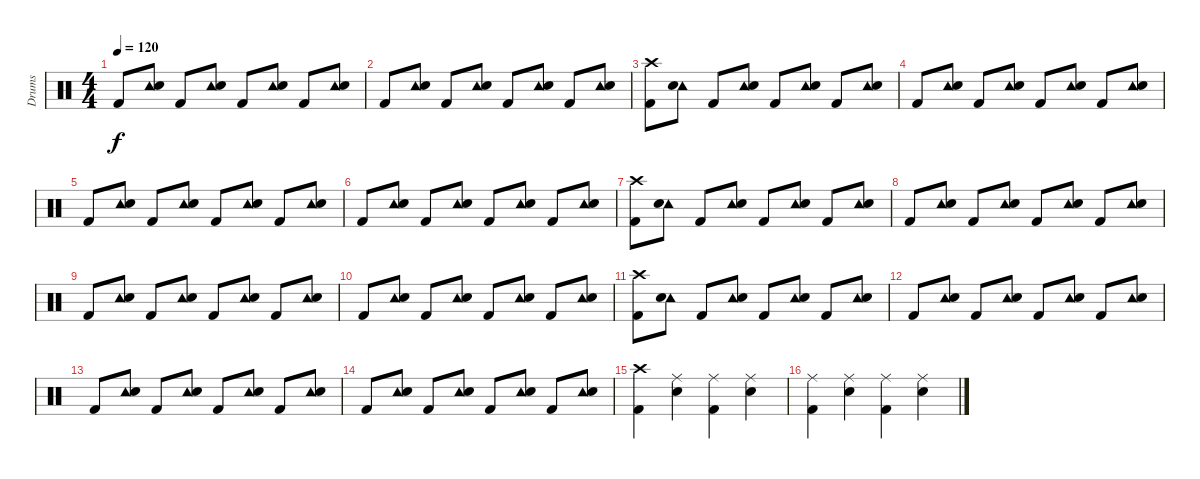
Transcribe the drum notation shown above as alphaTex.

\track ("Drums" "Drums") {instrument percussion}
\staff {score}
\articulation defaults
\ts (4 4)
\tempo 120
\clef neutral
\ks c "Kick (hit) 2".8{dy f}
("Tambourine (hit)" "Electric Snare (hit)").8 "Kick (hit) 2".8 ("Tambourine (hit)" "Electric Snare (hit)").8 "Kick (hit) 2".8 ("Tambourine (hit)" "Electric Snare (hit)").8 "Kick (hit) 2".8 ("Tambourine (hit)" "Electric Snare (hit)").8 |
"Kick (hit) 2".8 ("Tambourine (hit)" "Electric Snare (hit)").8 "Kick (hit) 2".8 ("Tambourine (hit)" "Electric Snare (hit)").8 "Kick (hit) 2".8 ("Tambourine (hit)" "Electric Snare (hit)").8 "Kick (hit) 2".8 ("Tambourine (hit)" "Electric Snare (hit)").8 |
("Crash high (hit)" "Kick (hit) 2").8 ("Tambourine (hit)" "Electric Snare (hit)").8 "Kick (hit) 2".8 ("Tambourine (hit)" "Electric Snare (hit)").8 "Kick (hit) 2".8 ("Tambourine (hit)" "Electric Snare (hit)").8 "Kick (hit) 2".8 ("Tambourine (hit)" "Electric Snare (hit)").8 |
"Kick (hit) 2".8 ("Tambourine (hit)" "Electric Snare (hit)").8 "Kick (hit) 2".8 ("Tambourine (hit)" "Electric Snare (hit)").8 "Kick (hit) 2".8 ("Tambourine (hit)" "Electric Snare (hit)").8 "Kick (hit) 2".8 ("Tambourine (hit)" "Electric Snare (hit)").8 |
"Kick (hit) 2".8 ("Tambourine (hit)" "Electric Snare (hit)").8 "Kick (hit) 2".8 ("Tambourine (hit)" "Electric Snare (hit)").8 "Kick (hit) 2".8 ("Tambourine (hit)" "Electric Snare (hit)").8 "Kick (hit) 2".8 ("Tambourine (hit)" "Electric Snare (hit)").8 |
"Kick (hit) 2".8 ("Tambourine (hit)" "Electric Snare (hit)").8 "Kick (hit) 2".8 ("Tambourine (hit)" "Electric Snare (hit)").8 "Kick (hit) 2".8 ("Tambourine (hit)" "Electric Snare (hit)").8 "Kick (hit) 2".8 ("Tambourine (hit)" "Electric Snare (hit)").8 |
("Crash high (hit)" "Kick (hit) 2").8 ("Tambourine (hit)" "Electric Snare (hit)").8 "Kick (hit) 2".8 ("Tambourine (hit)" "Electric Snare (hit)").8 "Kick (hit) 2".8 ("Tambourine (hit)" "Electric Snare (hit)").8 "Kick (hit) 2".8 ("Tambourine (hit)" "Electric Snare (hit)").8 |
"Kick (hit) 2".8 ("Tambourine (hit)" "Electric Snare (hit)").8 "Kick (hit) 2".8 ("Tambourine (hit)" "Electric Snare (hit)").8 "Kick (hit) 2".8 ("Tambourine (hit)" "Electric Snare (hit)").8 "Kick (hit) 2".8 ("Tambourine (hit)" "Electric Snare (hit)").8 |
"Kick (hit) 2".8 ("Tambourine (hit)" "Electric Snare (hit)").8 "Kick (hit) 2".8 ("Tambourine (hit)" "Electric Snare (hit)").8 "Kick (hit) 2".8 ("Tambourine (hit)" "Electric Snare (hit)").8 "Kick (hit) 2".8 ("Tambourine (hit)" "Electric Snare (hit)").8 |
"Kick (hit) 2".8 ("Tambourine (hit)" "Electric Snare (hit)").8 "Kick (hit) 2".8 ("Tambourine (hit)" "Electric Snare (hit)").8 "Kick (hit) 2".8 ("Tambourine (hit)" "Electric Snare (hit)").8 "Kick (hit) 2".8 ("Tambourine (hit)" "Electric Snare (hit)").8 |
("Crash high (hit)" "Kick (hit) 2").8 ("Tambourine (hit)" "Electric Snare (hit)").8 "Kick (hit) 2".8 ("Tambourine (hit)" "Electric Snare (hit)").8 "Kick (hit) 2".8 ("Tambourine (hit)" "Electric Snare (hit)").8 "Kick (hit) 2".8 ("Tambourine (hit)" "Electric Snare (hit)").8 |
"Kick (hit) 2".8 ("Tambourine (hit)" "Electric Snare (hit)").8 "Kick (hit) 2".8 ("Tambourine (hit)" "Electric Snare (hit)").8 "Kick (hit) 2".8 ("Tambourine (hit)" "Electric Snare (hit)").8 "Kick (hit) 2".8 ("Tambourine (hit)" "Electric Snare (hit)").8 |
"Kick (hit) 2".8 ("Tambourine (hit)" "Electric Snare (hit)").8 "Kick (hit) 2".8 ("Tambourine (hit)" "Electric Snare (hit)").8 "Kick (hit) 2".8 ("Tambourine (hit)" "Electric Snare (hit)").8 "Kick (hit) 2".8 ("Tambourine (hit)" "Electric Snare (hit)").8 |
"Kick (hit) 2".8 ("Tambourine (hit)" "Electric Snare (hit)").8 "Kick (hit) 2".8 ("Tambourine (hit)" "Electric Snare (hit)").8 "Kick (hit) 2".8 ("Tambourine (hit)" "Electric Snare (hit)").8 "Kick (hit) 2".8 ("Tambourine (hit)" "Electric Snare (hit)").8 |
("Crash high (hit)" "Kick (hit) 2").4 ("Ride (middle)" "Electric Snare (hit)").4 ("Ride (middle)" "Kick (hit) 2").4 ("Ride (middle)" "Electric Snare (hit)").4 |
("Ride (middle)" "Kick (hit) 2").4 ("Ride (middle)" "Electric Snare (hit)").4 ("Ride (middle)" "Kick (hit) 2").4 ("Ride (middle)" "Electric Snare (hit)").4
